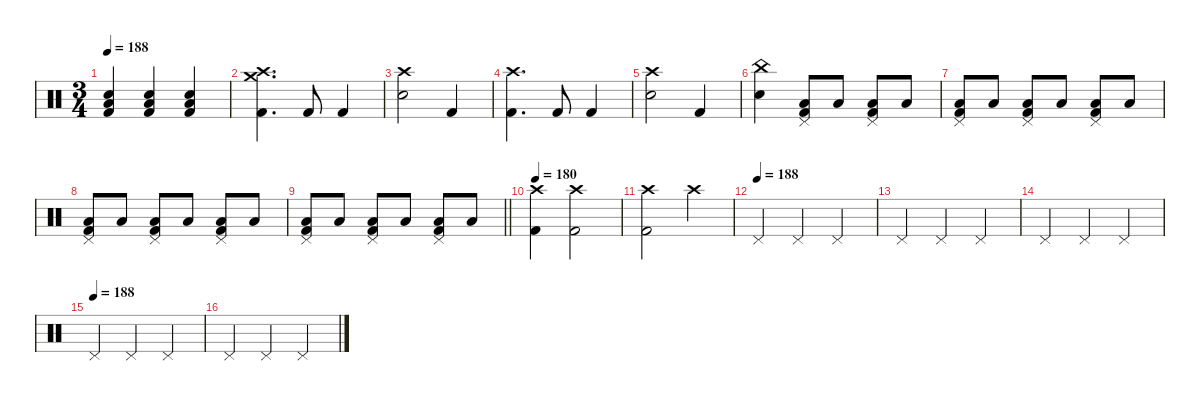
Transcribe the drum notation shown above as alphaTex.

\defaultSystemsLayout 4
\hideDynamics
\bracketExtendMode nobrackets
\singleTrackTrackNamePolicy hidden
\multiTrackTrackNamePolicy hidden
\firstSystemTrackNameMode fullname
\otherSystemsTrackNameOrientation horizontal
\track ("Drums" "drm.") {defaultSystemsLayout 4 instrument percussion}
\staff {score}
\articulation defaults
\ts (3 4)
\tempo 188
\clef neutral
\ks c
("Low Floor Tom (hit)" "Snare (hit) 2" "Kick (hit) 2").4{dy f beam Up} ("Low Floor Tom (hit)" "Snare (hit) 2" "Kick (hit) 2").4{beam Up} ("Low Floor Tom (hit)" "Snare (hit) 2" "Kick (hit) 2").4{beam Up} |
("Crash medium (hit)" "Crash high (hit)" "Kick (hit) 2").4{d beam Down} "Kick (hit) 2".8{beam Up} "Kick (hit) 2".4{beam Up} |
("Crash high (hit)" "Snare (hit) 2").2{beam Down} "Kick (hit) 2".4{beam Up} |
("Crash high (hit)" "Kick (hit) 2").4{d beam Down} "Kick (hit) 2".8{beam Up} "Kick (hit) 2".4{beam Up} |
("Crash high (hit)" "Snare (hit) 2").2{beam Down} "Kick (hit) 2".4{beam Up} |
("China (hit)" "Snare (hit) 2").4{beam Down} ("Pedal Hi-Hat (hit)" "Low Floor Tom (hit)" "Kick (hit) 2").8{beam Up} "Low Floor Tom (hit)".8{dy p beam Up} ("Pedal Hi-Hat (hit)" "Low Floor Tom (hit)" "Kick (hit) 2").8{dy f beam Up} "Low Floor Tom (hit)".8{dy p beam Up} |
("Pedal Hi-Hat (hit)" "Low Floor Tom (hit)" "Kick (hit) 2").8{dy f beam Up} "Low Floor Tom (hit)".8{dy mp beam Up} ("Pedal Hi-Hat (hit)" "Low Floor Tom (hit)" "Kick (hit) 2").8{dy f beam Up} "Low Floor Tom (hit)".8{dy mp beam Up} ("Pedal Hi-Hat (hit)" "Low Floor Tom (hit)" "Kick (hit) 2").8{dy f beam Up} "Low Floor Tom (hit)".8{dy mp beam Up} |
("Pedal Hi-Hat (hit)" "Low Floor Tom (hit)" "Kick (hit) 2").8{dy f beam Up} "Low Floor Tom (hit)".8{dy mf beam Up} ("Pedal Hi-Hat (hit)" "Low Floor Tom (hit)" "Kick (hit) 2").8{dy f beam Up} "Low Floor Tom (hit)".8{dy mf beam Up} ("Pedal Hi-Hat (hit)" "Low Floor Tom (hit)" "Kick (hit) 2").8{dy f beam Up} "Low Floor Tom (hit)".8{beam Up} |
\barLineRight lightlight
("Pedal Hi-Hat (hit)" "Low Floor Tom (hit)" "Kick (hit) 2").8{beam Up} "Low Floor Tom (hit)".8{dy ff beam Up} ("Pedal Hi-Hat (hit)" "Low Floor Tom (hit)" "Kick (hit) 2").8{dy f beam Up} "Low Floor Tom (hit)".8{dy fff beam Up} ("Pedal Hi-Hat (hit)" "Low Floor Tom (hit)" "Kick (hit) 2").8{dy f beam Up} "Low Floor Tom (hit)".8{dy fff beam Up} |
\tempo 180
("Crash high (hit)" "Kick (hit) 2").4{dy f beam Down} ("Crash high (hit)" "Kick (hit) 2").2{beam Down} |
("Crash high (hit)" "Kick (hit) 2").2{beam Down} "Crash high (hit)".4{beam Down} |
\tempo (188)
"Pedal Hi-Hat (hit)".4{beam Up} "Pedal Hi-Hat (hit)".4{dy mp beam Up} "Pedal Hi-Hat (hit)".4{beam Up} |
"Pedal Hi-Hat (hit)".4{dy f beam Up} "Pedal Hi-Hat (hit)".4{dy mp beam Up} "Pedal Hi-Hat (hit)".4{beam Up} |
"Pedal Hi-Hat (hit)".4{dy f beam Up} "Pedal Hi-Hat (hit)".4{dy mp beam Up} "Pedal Hi-Hat (hit)".4{beam Up} |
\tempo (188)
"Pedal Hi-Hat (hit)".4{dy f beam Up} "Pedal Hi-Hat (hit)".4{dy mp beam Up} "Pedal Hi-Hat (hit)".4{beam Up} |
"Pedal Hi-Hat (hit)".4{dy f beam Up} "Pedal Hi-Hat (hit)".4{dy mp beam Up} "Pedal Hi-Hat (hit)".4{beam Up}
